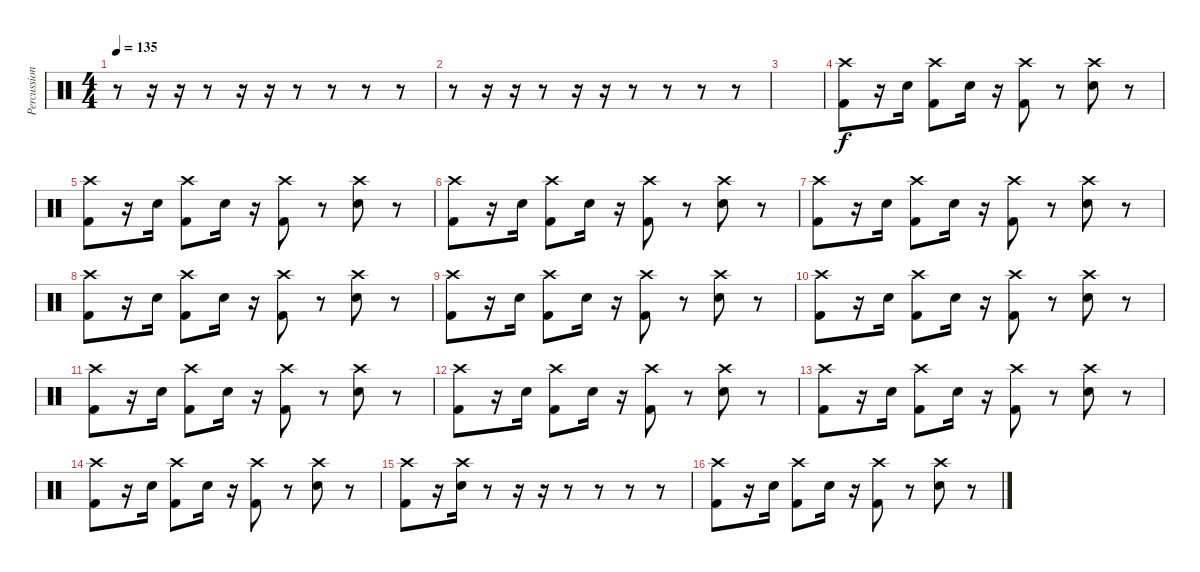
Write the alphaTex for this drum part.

\track ("Percussions" "Percussion") {instrument percussion}
\staff {score}
\articulation defaults
\ts (4 4)
\tempo 135
\clef neutral
\ks c
r.8{dy f} r.16 r.16 r.8 r.16 r.16 r.8 r.8 r.8 r.8 |
r.8 r.16 r.16 r.8 r.16 r.16 r.8 r.8 r.8 r.8 |
|
("Crash high (hit)" "Kick (hit) 2").8 r.16 "Snare (hit) 2".16 ("Crash high (hit)" "Kick (hit) 2").8 "Snare (hit) 2".16 r.16 ("Crash high (hit)" "Kick (hit) 2").8 r.8 ("Crash high (hit)" "Snare (hit) 2").8 r.8 |
("Crash high (hit)" "Kick (hit) 2").8 r.16 "Snare (hit) 2".16 ("Crash high (hit)" "Kick (hit) 2").8 "Snare (hit) 2".16 r.16 ("Crash high (hit)" "Kick (hit) 2").8 r.8 ("Crash high (hit)" "Snare (hit) 2").8 r.8 |
("Crash high (hit)" "Kick (hit) 2").8 r.16 "Snare (hit) 2".16 ("Crash high (hit)" "Kick (hit) 2").8 "Snare (hit) 2".16 r.16 ("Crash high (hit)" "Kick (hit) 2").8 r.8 ("Crash high (hit)" "Snare (hit) 2").8 r.8 |
("Crash high (hit)" "Kick (hit) 2").8 r.16 "Snare (hit) 2".16 ("Crash high (hit)" "Kick (hit) 2").8 "Snare (hit) 2".16 r.16 ("Crash high (hit)" "Kick (hit) 2").8 r.8 ("Crash high (hit)" "Snare (hit) 2").8 r.8 |
("Crash high (hit)" "Kick (hit) 2").8 r.16 "Snare (hit) 2".16 ("Crash high (hit)" "Kick (hit) 2").8 "Snare (hit) 2".16 r.16 ("Crash high (hit)" "Kick (hit) 2").8 r.8 ("Crash high (hit)" "Snare (hit) 2").8 r.8 |
("Crash high (hit)" "Kick (hit) 2").8 r.16 "Snare (hit) 2".16 ("Crash high (hit)" "Kick (hit) 2").8 "Snare (hit) 2".16 r.16 ("Crash high (hit)" "Kick (hit) 2").8 r.8 ("Crash high (hit)" "Snare (hit) 2").8 r.8 |
("Crash high (hit)" "Kick (hit) 2").8 r.16 "Snare (hit) 2".16 ("Crash high (hit)" "Kick (hit) 2").8 "Snare (hit) 2".16 r.16 ("Crash high (hit)" "Kick (hit) 2").8 r.8 ("Crash high (hit)" "Snare (hit) 2").8 r.8 |
("Crash high (hit)" "Kick (hit) 2").8 r.16 "Snare (hit) 2".16 ("Crash high (hit)" "Kick (hit) 2").8 "Snare (hit) 2".16 r.16 ("Crash high (hit)" "Kick (hit) 2").8 r.8 ("Crash high (hit)" "Snare (hit) 2").8 r.8 |
("Crash high (hit)" "Kick (hit) 2").8 r.16 "Snare (hit) 2".16 ("Crash high (hit)" "Kick (hit) 2").8 "Snare (hit) 2".16 r.16 ("Crash high (hit)" "Kick (hit) 2").8 r.8 ("Crash high (hit)" "Snare (hit) 2").8 r.8 |
("Crash high (hit)" "Kick (hit) 2").8 r.16 "Snare (hit) 2".16 ("Crash high (hit)" "Kick (hit) 2").8 "Snare (hit) 2".16 r.16 ("Crash high (hit)" "Kick (hit) 2").8 r.8 ("Crash high (hit)" "Snare (hit) 2").8 r.8 |
("Crash high (hit)" "Kick (hit) 2").8 r.16 "Snare (hit) 2".16 ("Crash high (hit)" "Kick (hit) 2").8 "Snare (hit) 2".16 r.16 ("Crash high (hit)" "Kick (hit) 2").8 r.8 ("Crash high (hit)" "Snare (hit) 2").8 r.8 |
("Crash high (hit)" "Kick (hit) 2").8 r.16 ("Crash high (hit)" "Snare (hit) 2").16 r.8 r.16 r.16 r.8 r.8 r.8 r.8 |
("Crash high (hit)" "Kick (hit) 2").8 r.16 "Snare (hit) 2".16 ("Crash high (hit)" "Kick (hit) 2").8 "Snare (hit) 2".16 r.16 ("Crash high (hit)" "Kick (hit) 2").8 r.8 ("Crash high (hit)" "Snare (hit) 2").8 r.8
